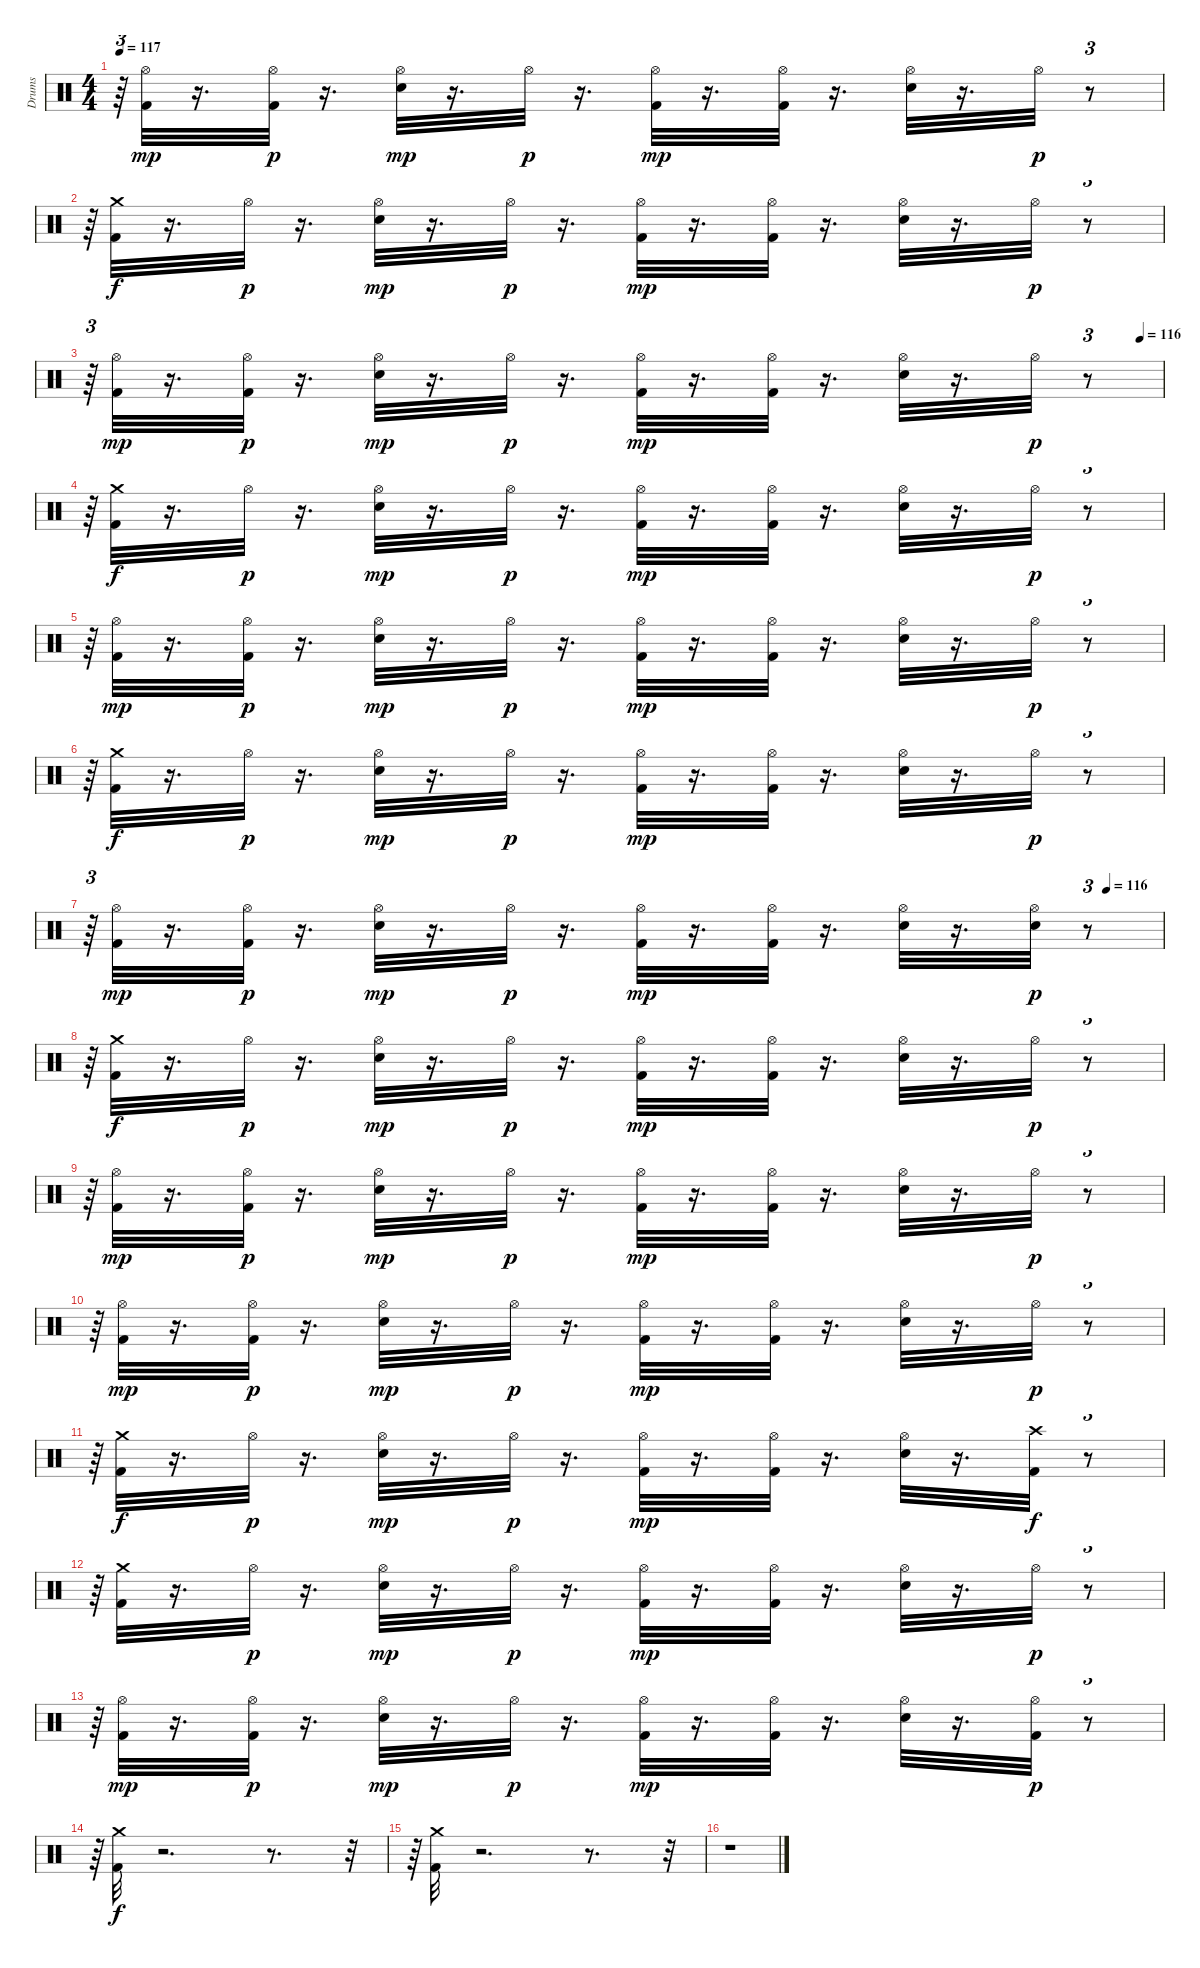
\track ("Drums" "Drums") {instrument percussion}
\staff {score}
\articulation defaults
\ts (4 4)
\tempo 117
\clef neutral
\ks c
r.64{tu (3 2) dy p} ("Kick (hit) 2" "Hi-Hat (open)").32{dy mp} r.16{d} ("Kick (hit) 2" "Hi-Hat (open)").32{dy p} r.16{d} ("Hi-Hat (open)" "Snare (hit) 2").32{dy mp} r.16{d} "Hi-Hat (open)".32{dy p} r.16{d} ("Kick (hit) 2" "Hi-Hat (open)").32{dy mp} r.16{d} ("Hi-Hat (open)" "Kick (hit) 2").32 r.16{d} ("Snare (hit) 2" "Hi-Hat (open)").32 r.16{d} "Hi-Hat (open)".32{dy p} r.8{tu (3 2)} |
r.64{tu (3 2)} ("Crash medium (hit)" "Kick (hit) 2").32{dy f} r.16{d} "Hi-Hat (open)".32{dy p} r.16{d} ("Hi-Hat (open)" "Snare (hit) 2").32{dy mp} r.16{d} "Hi-Hat (open)".32{dy p} r.16{d} ("Kick (hit) 2" "Hi-Hat (open)").32{dy mp} r.16{d} ("Hi-Hat (open)" "Kick (hit) 2").32 r.16{d} ("Snare (hit) 2" "Hi-Hat (open)").32 r.16{d} "Hi-Hat (open)".32{dy p} r.8{tu (3 2)} |
\tempo (116 0.9791666666666666)
r.64{tu (3 2)} ("Kick (hit) 2" "Hi-Hat (open)").32{dy mp} r.16{d} ("Kick (hit) 2" "Hi-Hat (open)").32{dy p} r.16{d} ("Hi-Hat (open)" "Snare (hit) 2").32{dy mp} r.16{d} "Hi-Hat (open)".32{dy p} r.16{d} ("Kick (hit) 2" "Hi-Hat (open)").32{dy mp} r.16{d} ("Hi-Hat (open)" "Kick (hit) 2").32 r.16{d} ("Snare (hit) 2" "Hi-Hat (open)").32 r.16{d} "Hi-Hat (open)".32{dy p} r.8{tu (3 2)} |
r.64{tu (3 2)} ("Crash medium (hit)" "Kick (hit) 2").32{dy f} r.16{d} "Hi-Hat (open)".32{dy p} r.16{d} ("Hi-Hat (open)" "Snare (hit) 2").32{dy mp} r.16{d} "Hi-Hat (open)".32{dy p} r.16{d} ("Kick (hit) 2" "Hi-Hat (open)").32{dy mp} r.16{d} ("Hi-Hat (open)" "Kick (hit) 2").32 r.16{d} ("Snare (hit) 2" "Hi-Hat (open)").32 r.16{d} "Hi-Hat (open)".32{dy p} r.8{tu (3 2)} |
r.64{tu (3 2)} ("Kick (hit) 2" "Hi-Hat (open)").32{dy mp} r.16{d} ("Kick (hit) 2" "Hi-Hat (open)").32{dy p} r.16{d} ("Hi-Hat (open)" "Snare (hit) 2").32{dy mp} r.16{d} "Hi-Hat (open)".32{dy p} r.16{d} ("Kick (hit) 2" "Hi-Hat (open)").32{dy mp} r.16{d} ("Hi-Hat (open)" "Kick (hit) 2").32 r.16{d} ("Snare (hit) 2" "Hi-Hat (open)").32 r.16{d} "Hi-Hat (open)".32{dy p} r.8{tu (3 2)} |
r.64{tu (3 2)} ("Crash medium (hit)" "Kick (hit) 2").32{dy f} r.16{d} "Hi-Hat (open)".32{dy p} r.16{d} ("Hi-Hat (open)" "Snare (hit) 2").32{dy mp} r.16{d} "Hi-Hat (open)".32{dy p} r.16{d} ("Kick (hit) 2" "Hi-Hat (open)").32{dy mp} r.16{d} ("Hi-Hat (open)" "Kick (hit) 2").32 r.16{d} ("Snare (hit) 2" "Hi-Hat (open)").32 r.16{d} "Hi-Hat (open)".32{dy p} r.8{tu (3 2)} |
\tempo (116 0.9479166666666666)
r.64{tu (3 2)} ("Kick (hit) 2" "Hi-Hat (open)").32{dy mp} r.16{d} ("Kick (hit) 2" "Hi-Hat (open)").32{dy p} r.16{d} ("Hi-Hat (open)" "Snare (hit) 2").32{dy mp} r.16{d} "Hi-Hat (open)".32{dy p} r.16{d} ("Kick (hit) 2" "Hi-Hat (open)").32{dy mp} r.16{d} ("Hi-Hat (open)" "Kick (hit) 2").32 r.16{d} ("Snare (hit) 2" "Hi-Hat (open)").32 r.16{d} ("Snare (hit) 2" "Hi-Hat (open)").32{dy p} r.8{tu (3 2)} |
r.64{tu (3 2)} ("Crash medium (hit)" "Kick (hit) 2").32{dy f} r.16{d} "Hi-Hat (open)".32{dy p} r.16{d} ("Hi-Hat (open)" "Snare (hit) 2").32{dy mp} r.16{d} "Hi-Hat (open)".32{dy p} r.16{d} ("Kick (hit) 2" "Hi-Hat (open)").32{dy mp} r.16{d} ("Hi-Hat (open)" "Kick (hit) 2").32 r.16{d} ("Snare (hit) 2" "Hi-Hat (open)").32 r.16{d} "Hi-Hat (open)".32{dy p} r.8{tu (3 2)} |
r.64{tu (3 2)} ("Kick (hit) 2" "Hi-Hat (open)").32{dy mp} r.16{d} ("Kick (hit) 2" "Hi-Hat (open)").32{dy p} r.16{d} ("Hi-Hat (open)" "Snare (hit) 2").32{dy mp} r.16{d} "Hi-Hat (open)".32{dy p} r.16{d} ("Kick (hit) 2" "Hi-Hat (open)").32{dy mp} r.16{d} ("Hi-Hat (open)" "Kick (hit) 2").32 r.16{d} ("Snare (hit) 2" "Hi-Hat (open)").32 r.16{d} "Hi-Hat (open)".32{dy p} r.8{tu (3 2)} |
r.64{tu (3 2)} ("Kick (hit) 2" "Hi-Hat (open)").32{dy mp} r.16{d} ("Kick (hit) 2" "Hi-Hat (open)").32{dy p} r.16{d} ("Hi-Hat (open)" "Snare (hit) 2").32{dy mp} r.16{d} "Hi-Hat (open)".32{dy p} r.16{d} ("Kick (hit) 2" "Hi-Hat (open)").32{dy mp} r.16{d} ("Hi-Hat (open)" "Kick (hit) 2").32 r.16{d} ("Snare (hit) 2" "Hi-Hat (open)").32 r.16{d} "Hi-Hat (open)".32{dy p} r.8{tu (3 2)} |
r.64{tu (3 2)} ("Crash medium (hit)" "Kick (hit) 2").32{dy f} r.16{d} "Hi-Hat (open)".32{dy p} r.16{d} ("Hi-Hat (open)" "Snare (hit) 2").32{dy mp} r.16{d} "Hi-Hat (open)".32{dy p} r.16{d} ("Kick (hit) 2" "Hi-Hat (open)").32{dy mp} r.16{d} ("Hi-Hat (open)" "Kick (hit) 2").32 r.16{d} ("Snare (hit) 2" "Hi-Hat (open)").32 r.16{d} ("Crash high (hit)" "Kick (hit) 2").32{dy f} r.8{tu (3 2)} |
r.64{tu (3 2)} ("Crash medium (hit)" "Kick (hit) 2").32 r.16{d} "Hi-Hat (open)".32{dy p} r.16{d} ("Hi-Hat (open)" "Snare (hit) 2").32{dy mp} r.16{d} "Hi-Hat (open)".32{dy p} r.16{d} ("Kick (hit) 2" "Hi-Hat (open)").32{dy mp} r.16{d} ("Hi-Hat (open)" "Kick (hit) 2").32 r.16{d} ("Snare (hit) 2" "Hi-Hat (open)").32 r.16{d} "Hi-Hat (open)".32{dy p} r.8{tu (3 2)} |
r.64{tu (3 2)} ("Kick (hit) 2" "Hi-Hat (open)").32{dy mp} r.16{d} ("Kick (hit) 2" "Hi-Hat (open)").32{dy p} r.16{d} ("Hi-Hat (open)" "Snare (hit) 2").32{dy mp} r.16{d} "Hi-Hat (open)".32{dy p} r.16{d} ("Kick (hit) 2" "Hi-Hat (open)").32{dy mp} r.16{d} ("Hi-Hat (open)" "Kick (hit) 2").32 r.16{d} ("Snare (hit) 2" "Hi-Hat (open)").32 r.16{d} ("Kick (hit) 2" "Hi-Hat (open)").32{dy p} r.8{tu (3 2)} |
r.64{tu (3 2)} ("Crash medium (hit)" "Kick (hit) 2").32{dy f} r.2{d} r.8{d} r.32{tu (3 2)} |
r.64{tu (3 2)} ("Kick (hit) 2" "Crash medium (hit)").32 r.2{d} r.8{d} r.32{tu (3 2)} |
r.1
